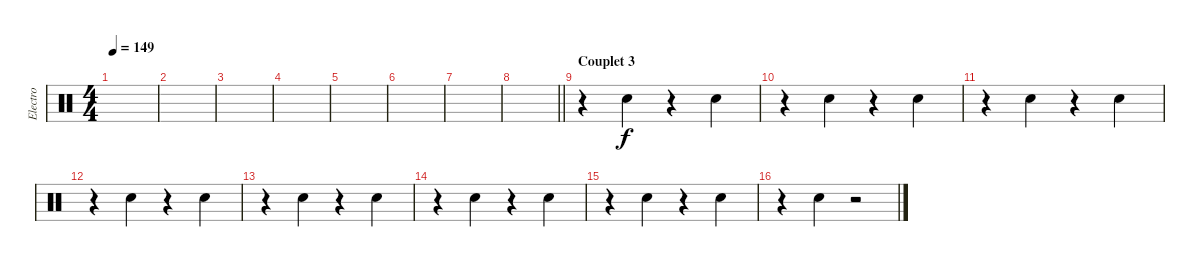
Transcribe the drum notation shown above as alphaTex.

\track ("Electro" "Electro") {instrument percussion}
\staff {score}
\articulation defaults
\ts (4 4)
\tempo 149
\clef neutral
\ks c
|
|
|
|
|
|
|
\barLineRight lightlight
|
\section ("" "Couplet 3")
r.4 "Electric Snare (hit)".4 r.4 "Electric Snare (hit)".4 |
r.4 "Electric Snare (hit)".4 r.4 "Electric Snare (hit)".4 |
r.4 "Electric Snare (hit)".4 r.4 "Electric Snare (hit)".4 |
r.4 "Electric Snare (hit)".4 r.4 "Electric Snare (hit)".4 |
r.4 "Electric Snare (hit)".4 r.4 "Electric Snare (hit)".4 |
r.4 "Electric Snare (hit)".4 r.4 "Electric Snare (hit)".4 |
r.4 "Electric Snare (hit)".4 r.4 "Electric Snare (hit)".4 |
r.4 "Electric Snare (hit)".4 r.2
